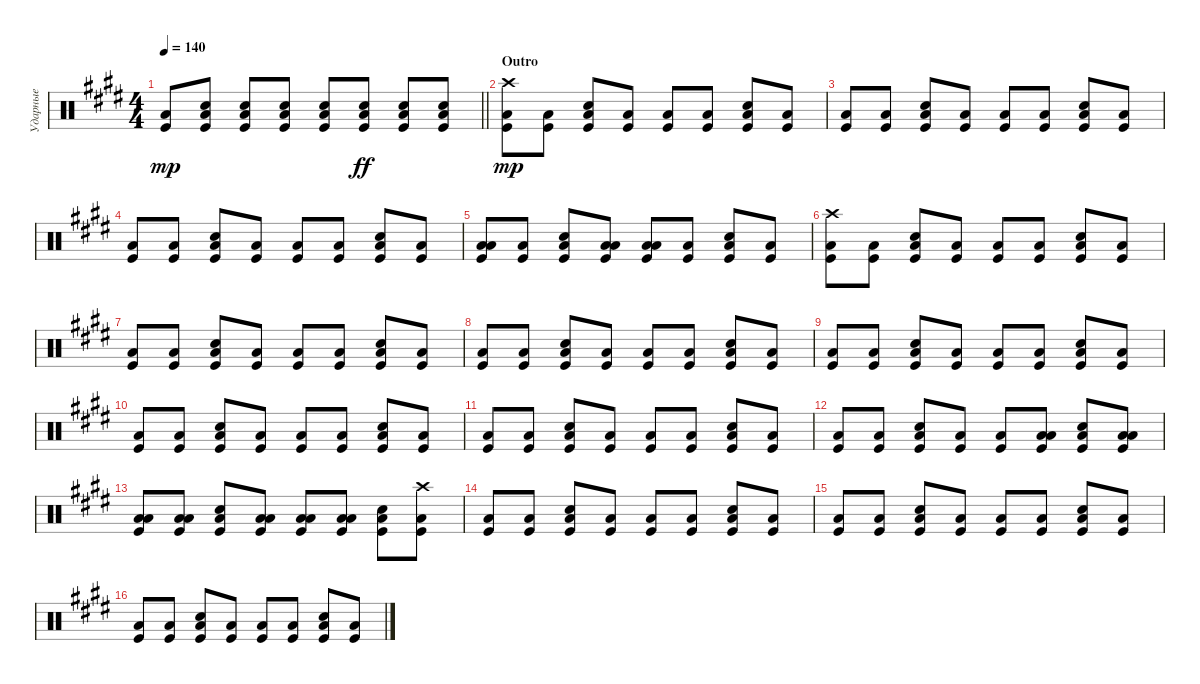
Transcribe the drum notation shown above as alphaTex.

\track ("Ударные" "Ударные") {instrument percussion}
\staff {score}
\articulation defaults
\ts (4 4)
\tempo 140
\clef neutral
\barLineRight lightlight
\ks c#minor
("Kick (hit)" "Low Floor Tom (hit)").8{dy mp} ("Kick (hit)" "Snare (hit) 2" "Low Floor Tom (hit)").8 ("Kick (hit)" "Low Floor Tom (hit)" "Snare (hit) 2").8 ("Kick (hit)" "Low Floor Tom (hit)" "Snare (hit) 2").8 ("Kick (hit)" "Snare (hit) 2" "Low Floor Tom (hit)").8 ("Kick (hit)" "Low Floor Tom (hit)" "Snare (hit) 2").8{dy ff} ("Kick (hit)" "Low Floor Tom (hit)" "Snare (hit) 2").8 ("Kick (hit)" "Low Floor Tom (hit)" "Snare (hit) 2").8 |
\section ("" "Outro")
("Kick (hit)" "Low Floor Tom (hit)" "Crash high (hit)").8{dy mp} ("Kick (hit)" "Low Floor Tom (hit)").8 ("Kick (hit)" "Low Floor Tom (hit)" "Snare (hit) 2").8 ("Kick (hit)" "Low Floor Tom (hit)").8 ("Kick (hit)" "Low Floor Tom (hit)").8 ("Kick (hit)" "Low Floor Tom (hit)").8 ("Kick (hit)" "Low Floor Tom (hit)" "Snare (hit) 2").8 ("Kick (hit)" "Low Floor Tom (hit)").8 |
("Kick (hit)" "Low Floor Tom (hit)").8 ("Kick (hit)" "Low Floor Tom (hit)").8 ("Kick (hit)" "Low Floor Tom (hit)" "Snare (hit) 2").8 ("Kick (hit)" "Low Floor Tom (hit)").8 ("Kick (hit)" "Low Floor Tom (hit)").8 ("Kick (hit)" "Low Floor Tom (hit)").8 ("Kick (hit)" "Low Floor Tom (hit)" "Snare (hit) 2").8 ("Kick (hit)" "Low Floor Tom (hit)").8 |
("Kick (hit)" "Low Floor Tom (hit)").8 ("Kick (hit)" "Low Floor Tom (hit)").8 ("Kick (hit)" "Low Floor Tom (hit)" "Snare (hit) 2").8 ("Kick (hit)" "Low Floor Tom (hit)").8 ("Kick (hit)" "Low Floor Tom (hit)").8 ("Kick (hit)" "Low Floor Tom (hit)").8 ("Kick (hit)" "Low Floor Tom (hit)" "Snare (hit) 2").8 ("Kick (hit)" "Low Floor Tom (hit)").8 |
("Kick (hit)" "Low Floor Tom (hit)" "Low Tom (hit)").8 ("Kick (hit)" "Low Floor Tom (hit)").8 ("Kick (hit)" "Low Floor Tom (hit)" "Snare (hit) 2").8 ("Kick (hit)" "Low Floor Tom (hit)" "Low Tom (hit)").8 ("Kick (hit)" "Low Tom (hit)" "Low Floor Tom (hit)").8 ("Kick (hit)" "Low Floor Tom (hit)").8 ("Kick (hit)" "Low Floor Tom (hit)" "Snare (hit) 2").8 ("Kick (hit)" "Low Floor Tom (hit)").8 |
("Kick (hit)" "Low Floor Tom (hit)" "Crash high (hit)").8 ("Kick (hit)" "Low Floor Tom (hit)").8 ("Kick (hit)" "Low Floor Tom (hit)" "Snare (hit) 2").8 ("Kick (hit)" "Low Floor Tom (hit)").8 ("Kick (hit)" "Low Floor Tom (hit)").8 ("Kick (hit)" "Low Floor Tom (hit)").8 ("Kick (hit)" "Low Floor Tom (hit)" "Snare (hit) 2").8 ("Kick (hit)" "Low Floor Tom (hit)").8 |
("Kick (hit)" "Low Floor Tom (hit)").8 ("Kick (hit)" "Low Floor Tom (hit)").8 ("Kick (hit)" "Low Floor Tom (hit)" "Snare (hit) 2").8 ("Kick (hit)" "Low Floor Tom (hit)").8 ("Kick (hit)" "Low Floor Tom (hit)").8 ("Kick (hit)" "Low Floor Tom (hit)").8 ("Kick (hit)" "Low Floor Tom (hit)" "Snare (hit) 2").8 ("Kick (hit)" "Low Floor Tom (hit)").8 |
("Kick (hit)" "Low Floor Tom (hit)").8 ("Kick (hit)" "Low Floor Tom (hit)").8 ("Kick (hit)" "Low Floor Tom (hit)" "Snare (hit) 2").8 ("Kick (hit)" "Low Floor Tom (hit)").8 ("Kick (hit)" "Low Floor Tom (hit)").8 ("Kick (hit)" "Low Floor Tom (hit)").8 ("Kick (hit)" "Low Floor Tom (hit)" "Snare (hit) 2").8 ("Kick (hit)" "Low Floor Tom (hit)").8 |
("Kick (hit)" "Low Floor Tom (hit)").8 ("Kick (hit)" "Low Floor Tom (hit)").8 ("Kick (hit)" "Low Floor Tom (hit)" "Snare (hit) 2").8 ("Kick (hit)" "Low Floor Tom (hit)").8 ("Kick (hit)" "Low Floor Tom (hit)").8 ("Kick (hit)" "Low Floor Tom (hit)").8 ("Kick (hit)" "Low Floor Tom (hit)" "Snare (hit) 2").8 ("Kick (hit)" "Low Floor Tom (hit)").8 |
("Kick (hit)" "Low Floor Tom (hit)").8 ("Kick (hit)" "Low Floor Tom (hit)").8 ("Kick (hit)" "Low Floor Tom (hit)" "Snare (hit) 2").8 ("Kick (hit)" "Low Floor Tom (hit)").8 ("Kick (hit)" "Low Floor Tom (hit)").8 ("Kick (hit)" "Low Floor Tom (hit)").8 ("Kick (hit)" "Low Floor Tom (hit)" "Snare (hit) 2").8 ("Kick (hit)" "Low Floor Tom (hit)").8 |
("Kick (hit)" "Low Floor Tom (hit)").8 ("Kick (hit)" "Low Floor Tom (hit)").8 ("Kick (hit)" "Low Floor Tom (hit)" "Snare (hit) 2").8 ("Kick (hit)" "Low Floor Tom (hit)").8 ("Kick (hit)" "Low Floor Tom (hit)").8 ("Kick (hit)" "Low Floor Tom (hit)").8 ("Kick (hit)" "Low Floor Tom (hit)" "Snare (hit) 2").8 ("Kick (hit)" "Low Floor Tom (hit)").8 |
("Kick (hit)" "Low Floor Tom (hit)").8 ("Kick (hit)" "Low Floor Tom (hit)").8 ("Kick (hit)" "Low Floor Tom (hit)" "Snare (hit) 2").8 ("Kick (hit)" "Low Floor Tom (hit)").8 ("Kick (hit)" "Low Floor Tom (hit)").8 ("Kick (hit)" "Low Floor Tom (hit)" "Low Tom (hit)").8 ("Kick (hit)" "Low Floor Tom (hit)" "Snare (hit) 2").8 ("Kick (hit)" "Low Floor Tom (hit)" "Low Tom (hit)").8 |
("Kick (hit)" "Low Floor Tom (hit)" "Low Tom (hit)").8 ("Kick (hit)" "Low Tom (hit)" "Low Floor Tom (hit)").8 ("Kick (hit)" "Low Floor Tom (hit)" "Snare (hit) 2").8 ("Kick (hit)" "Low Floor Tom (hit)" "Low Tom (hit)").8 ("Kick (hit)" "Low Tom (hit)" "Low Floor Tom (hit)").8 ("Kick (hit)" "Low Floor Tom (hit)" "Low Tom (hit)").8 ("Kick (hit)" "Low Floor Tom (hit)" "Snare (hit) 2").8 ("Kick (hit)" "Low Floor Tom (hit)" "Crash high (hit)").8 |
("Kick (hit)" "Low Floor Tom (hit)").8 ("Kick (hit)" "Low Floor Tom (hit)").8 ("Kick (hit)" "Low Floor Tom (hit)" "Snare (hit) 2").8 ("Kick (hit)" "Low Floor Tom (hit)").8 ("Kick (hit)" "Low Floor Tom (hit)").8 ("Kick (hit)" "Low Floor Tom (hit)").8 ("Kick (hit)" "Low Floor Tom (hit)" "Snare (hit) 2").8 ("Kick (hit)" "Low Floor Tom (hit)").8 |
("Kick (hit)" "Low Floor Tom (hit)").8 ("Kick (hit)" "Low Floor Tom (hit)").8 ("Kick (hit)" "Low Floor Tom (hit)" "Snare (hit) 2").8 ("Kick (hit)" "Low Floor Tom (hit)").8 ("Kick (hit)" "Low Floor Tom (hit)").8 ("Kick (hit)" "Low Floor Tom (hit)").8 ("Kick (hit)" "Low Floor Tom (hit)" "Snare (hit) 2").8 ("Kick (hit)" "Low Floor Tom (hit)").8 |
("Kick (hit)" "Low Floor Tom (hit)").8 ("Kick (hit)" "Low Floor Tom (hit)").8 ("Kick (hit)" "Low Floor Tom (hit)" "Snare (hit) 2").8 ("Kick (hit)" "Low Floor Tom (hit)").8 ("Kick (hit)" "Low Floor Tom (hit)").8 ("Kick (hit)" "Low Floor Tom (hit)").8 ("Kick (hit)" "Low Floor Tom (hit)" "Snare (hit) 2").8 ("Kick (hit)" "Low Floor Tom (hit)").8
